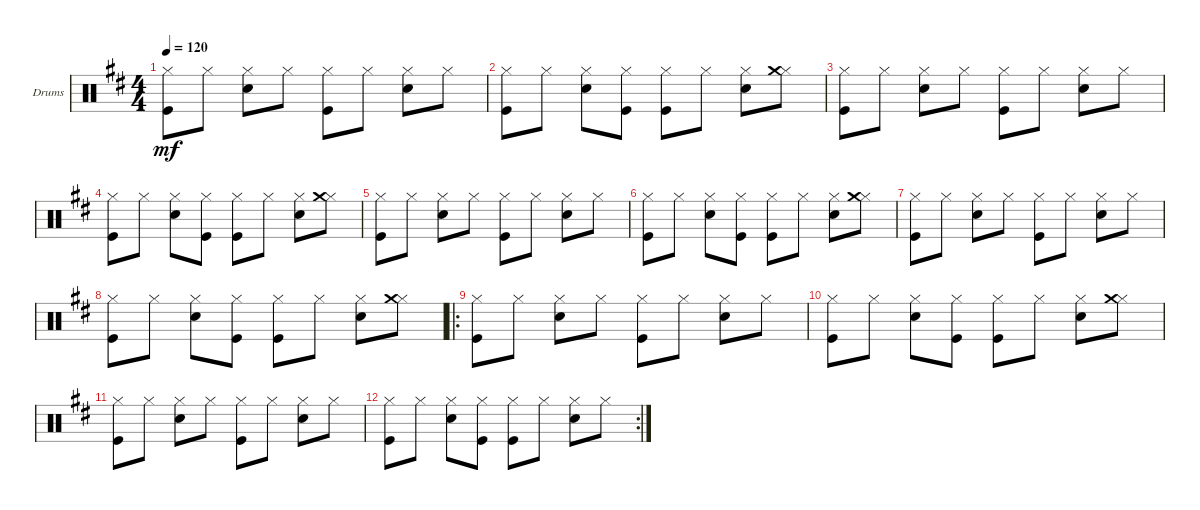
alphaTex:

\defaultSystemsLayout 4
\bracketExtendMode groupsimilarinstruments
\firstSystemTrackNameOrientation horizontal
\otherSystemsTrackNameOrientation horizontal
\track ("Drumkit" "Drums") {instrument percussion}
\staff {score}
\articulation defaults
\ts (4 4)
\tempo 120
\clef neutral
\ks d
("Kick (hit)" "Hi-Hat (closed)").8{dy mf} "Hi-Hat (closed)".8 ("Hi-Hat (closed)" "Snare (hit) 2").8 "Hi-Hat (closed)".8 ("Hi-Hat (closed)" "Kick (hit)").8 "Hi-Hat (closed)".8 ("Hi-Hat (closed)" "Snare (hit) 2").8 "Hi-Hat (closed)".8 |
("Hi-Hat (closed)" "Kick (hit)").8 "Hi-Hat (closed)".8 ("Hi-Hat (closed)" "Snare (hit) 2").8 ("Hi-Hat (closed)" "Kick (hit)").8 ("Hi-Hat (closed)" "Kick (hit)").8 "Hi-Hat (closed)".8 ("Hi-Hat (closed)" "Snare (hit) 2").8 ("Hi-Hat (closed)" "Crash medium (hit)").8 |
("Kick (hit)" "Hi-Hat (closed)").8 "Hi-Hat (closed)".8 ("Hi-Hat (closed)" "Snare (hit) 2").8 "Hi-Hat (closed)".8 ("Hi-Hat (closed)" "Kick (hit)").8 "Hi-Hat (closed)".8 ("Hi-Hat (closed)" "Snare (hit) 2").8 "Hi-Hat (closed)".8 |
("Hi-Hat (closed)" "Kick (hit)").8 "Hi-Hat (closed)".8 ("Hi-Hat (closed)" "Snare (hit) 2").8 ("Hi-Hat (closed)" "Kick (hit)").8 ("Hi-Hat (closed)" "Kick (hit)").8 "Hi-Hat (closed)".8 ("Hi-Hat (closed)" "Snare (hit) 2").8 ("Hi-Hat (closed)" "Crash medium (hit)").8 |
("Kick (hit)" "Hi-Hat (closed)").8 "Hi-Hat (closed)".8 ("Hi-Hat (closed)" "Snare (hit) 2").8 "Hi-Hat (closed)".8 ("Hi-Hat (closed)" "Kick (hit)").8 "Hi-Hat (closed)".8 ("Hi-Hat (closed)" "Snare (hit) 2").8 "Hi-Hat (closed)".8 |
("Hi-Hat (closed)" "Kick (hit)").8 "Hi-Hat (closed)".8 ("Hi-Hat (closed)" "Snare (hit) 2").8 ("Hi-Hat (closed)" "Kick (hit)").8 ("Hi-Hat (closed)" "Kick (hit)").8 "Hi-Hat (closed)".8 ("Hi-Hat (closed)" "Snare (hit) 2").8 ("Hi-Hat (closed)" "Crash medium (hit)").8 |
("Kick (hit)" "Hi-Hat (closed)").8 "Hi-Hat (closed)".8 ("Hi-Hat (closed)" "Snare (hit) 2").8 "Hi-Hat (closed)".8 ("Hi-Hat (closed)" "Kick (hit)").8 "Hi-Hat (closed)".8 ("Hi-Hat (closed)" "Snare (hit) 2").8 "Hi-Hat (closed)".8 |
("Hi-Hat (closed)" "Kick (hit)").8 "Hi-Hat (closed)".8 ("Hi-Hat (closed)" "Snare (hit) 2").8 ("Hi-Hat (closed)" "Kick (hit)").8 ("Hi-Hat (closed)" "Kick (hit)").8 "Hi-Hat (closed)".8 ("Hi-Hat (closed)" "Snare (hit) 2").8 ("Hi-Hat (closed)" "Crash medium (hit)").8 |
\ro
("Kick (hit)" "Hi-Hat (closed)").8 "Hi-Hat (closed)".8 ("Hi-Hat (closed)" "Snare (hit) 2").8 "Hi-Hat (closed)".8 ("Hi-Hat (closed)" "Kick (hit)").8 "Hi-Hat (closed)".8 ("Hi-Hat (closed)" "Snare (hit) 2").8 "Hi-Hat (closed)".8 |
("Hi-Hat (closed)" "Kick (hit)").8 "Hi-Hat (closed)".8 ("Hi-Hat (closed)" "Snare (hit) 2").8 ("Hi-Hat (closed)" "Kick (hit)").8 ("Hi-Hat (closed)" "Kick (hit)").8 "Hi-Hat (closed)".8 ("Hi-Hat (closed)" "Snare (hit) 2").8 ("Hi-Hat (closed)" "Crash medium (hit)").8 |
("Kick (hit)" "Hi-Hat (closed)").8 "Hi-Hat (closed)".8 ("Hi-Hat (closed)" "Snare (hit) 2").8 "Hi-Hat (closed)".8 ("Hi-Hat (closed)" "Kick (hit)").8 "Hi-Hat (closed)".8 ("Hi-Hat (closed)" "Snare (hit) 2").8 "Hi-Hat (closed)".8 |
\rc 2
("Hi-Hat (closed)" "Kick (hit)").8 "Hi-Hat (closed)".8 ("Hi-Hat (closed)" "Snare (hit) 2").8 ("Hi-Hat (closed)" "Kick (hit)").8 ("Hi-Hat (closed)" "Kick (hit)").8 "Hi-Hat (closed)".8 ("Hi-Hat (closed)" "Snare (hit) 2").8 "Hi-Hat (closed)".8
